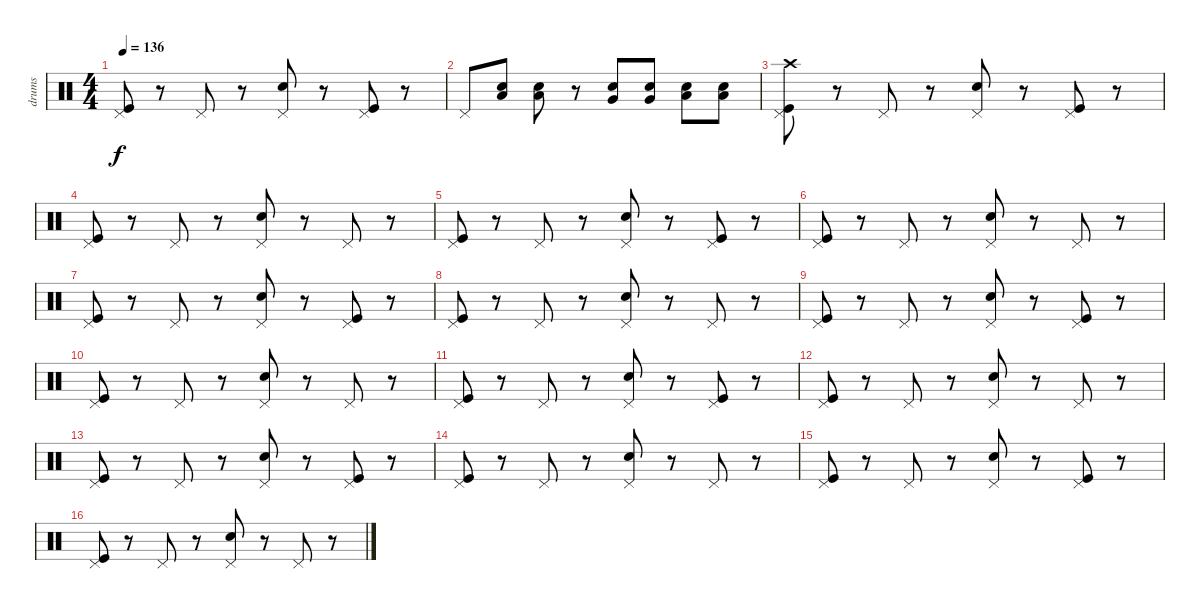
\track ("drums" "drums") {instrument percussion}
\staff {score}
\articulation defaults
\ts (4 4)
\tempo 136
\clef neutral
\ks c
("Kick (hit)" "Pedal Hi-Hat (hit)").8{dy f} r.8 "Pedal Hi-Hat (hit)".8 r.8 ("Snare (hit) 2" "Pedal Hi-Hat (hit)").8 r.8 ("Kick (hit)" "Pedal Hi-Hat (hit)").8 r.8 |
"Pedal Hi-Hat (hit)".8 ("Snare (hit) 2" "Low Tom (hit)").8 ("Snare (hit) 2" "Low Tom (hit)").8 r.8 ("Snare (hit) 2" "Very Low Tom (hit)").8 ("Snare (hit) 2" "Very Low Tom (hit)").8 ("Snare (hit) 2" "Low Floor Tom (hit)").8 ("Snare (hit) 2" "Low Floor Tom (hit)").8 |
("Kick (hit)" "Crash high (hit)" "Pedal Hi-Hat (hit)").8 r.8 "Pedal Hi-Hat (hit)".8 r.8 ("Snare (hit) 2" "Pedal Hi-Hat (hit)").8 r.8 ("Kick (hit)" "Pedal Hi-Hat (hit)").8 r.8 |
("Kick (hit)" "Pedal Hi-Hat (hit)").8 r.8 "Pedal Hi-Hat (hit)".8 r.8 ("Snare (hit) 2" "Pedal Hi-Hat (hit)").8 r.8 "Pedal Hi-Hat (hit)".8 r.8 |
("Kick (hit)" "Pedal Hi-Hat (hit)").8 r.8 "Pedal Hi-Hat (hit)".8 r.8 ("Snare (hit) 2" "Pedal Hi-Hat (hit)").8 r.8 ("Kick (hit)" "Pedal Hi-Hat (hit)").8 r.8 |
("Kick (hit)" "Pedal Hi-Hat (hit)").8 r.8 "Pedal Hi-Hat (hit)".8 r.8 ("Snare (hit) 2" "Pedal Hi-Hat (hit)").8 r.8 "Pedal Hi-Hat (hit)".8 r.8 |
("Kick (hit)" "Pedal Hi-Hat (hit)").8 r.8 "Pedal Hi-Hat (hit)".8 r.8 ("Snare (hit) 2" "Pedal Hi-Hat (hit)").8 r.8 ("Kick (hit)" "Pedal Hi-Hat (hit)").8 r.8 |
("Kick (hit)" "Pedal Hi-Hat (hit)").8 r.8 "Pedal Hi-Hat (hit)".8 r.8 ("Snare (hit) 2" "Pedal Hi-Hat (hit)").8 r.8 "Pedal Hi-Hat (hit)".8 r.8 |
("Kick (hit)" "Pedal Hi-Hat (hit)").8 r.8 "Pedal Hi-Hat (hit)".8 r.8 ("Snare (hit) 2" "Pedal Hi-Hat (hit)").8 r.8 ("Kick (hit)" "Pedal Hi-Hat (hit)").8 r.8 |
("Kick (hit)" "Pedal Hi-Hat (hit)").8 r.8 "Pedal Hi-Hat (hit)".8 r.8 ("Snare (hit) 2" "Pedal Hi-Hat (hit)").8 r.8 "Pedal Hi-Hat (hit)".8 r.8 |
("Kick (hit)" "Pedal Hi-Hat (hit)").8 r.8 "Pedal Hi-Hat (hit)".8 r.8 ("Snare (hit) 2" "Pedal Hi-Hat (hit)").8 r.8 ("Kick (hit)" "Pedal Hi-Hat (hit)").8 r.8 |
("Kick (hit)" "Pedal Hi-Hat (hit)").8 r.8 "Pedal Hi-Hat (hit)".8 r.8 ("Snare (hit) 2" "Pedal Hi-Hat (hit)").8 r.8 "Pedal Hi-Hat (hit)".8 r.8 |
("Kick (hit)" "Pedal Hi-Hat (hit)").8 r.8 "Pedal Hi-Hat (hit)".8 r.8 ("Snare (hit) 2" "Pedal Hi-Hat (hit)").8 r.8 ("Kick (hit)" "Pedal Hi-Hat (hit)").8 r.8 |
("Kick (hit)" "Pedal Hi-Hat (hit)").8 r.8 "Pedal Hi-Hat (hit)".8 r.8 ("Snare (hit) 2" "Pedal Hi-Hat (hit)").8 r.8 "Pedal Hi-Hat (hit)".8 r.8 |
("Kick (hit)" "Pedal Hi-Hat (hit)").8 r.8 "Pedal Hi-Hat (hit)".8 r.8 ("Snare (hit) 2" "Pedal Hi-Hat (hit)").8 r.8 ("Kick (hit)" "Pedal Hi-Hat (hit)").8 r.8 |
("Kick (hit)" "Pedal Hi-Hat (hit)").8 r.8 "Pedal Hi-Hat (hit)".8 r.8 ("Snare (hit) 2" "Pedal Hi-Hat (hit)").8 r.8 "Pedal Hi-Hat (hit)".8 r.8
